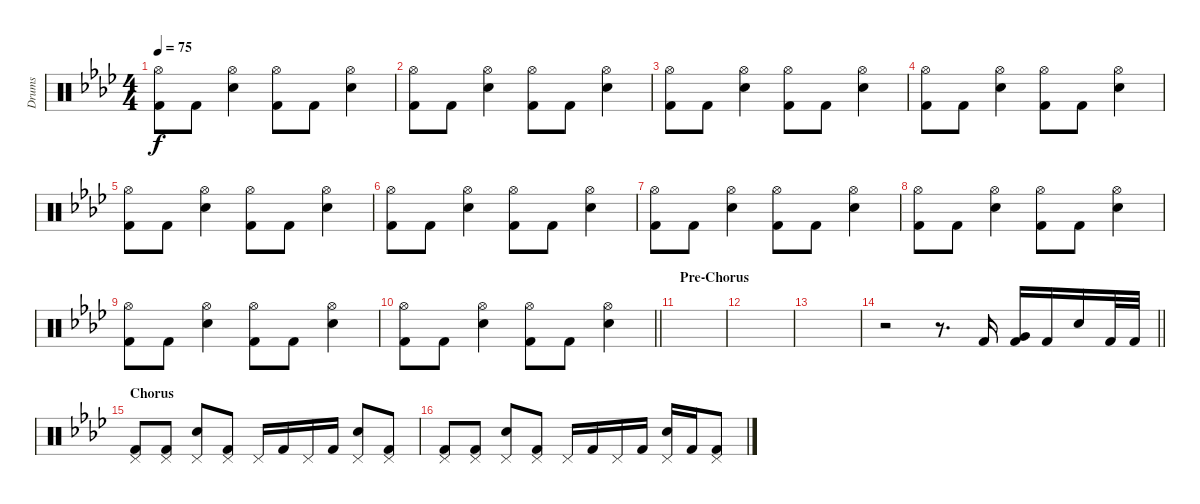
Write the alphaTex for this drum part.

\track ("Drums" "Drums") {instrument percussion}
\staff {score}
\articulation defaults
\ts (4 4)
\tempo 75
\clef neutral
\ks ab
("Hi-Hat (open)" "Kick (hit) 2").8{dy f} "Kick (hit) 2".8 ("Hi-Hat (open)" "Snare (hit) 2").4 ("Hi-Hat (open)" "Kick (hit) 2").8 "Kick (hit) 2".8 ("Hi-Hat (open)" "Snare (hit) 2").4 |
("Hi-Hat (open)" "Kick (hit) 2").8 "Kick (hit) 2".8 ("Hi-Hat (open)" "Snare (hit) 2").4 ("Hi-Hat (open)" "Kick (hit) 2").8 "Kick (hit) 2".8 ("Hi-Hat (open)" "Snare (hit) 2").4 |
("Hi-Hat (open)" "Kick (hit) 2").8 "Kick (hit) 2".8 ("Hi-Hat (open)" "Snare (hit) 2").4 ("Hi-Hat (open)" "Kick (hit) 2").8 "Kick (hit) 2".8 ("Hi-Hat (open)" "Snare (hit) 2").4 |
("Hi-Hat (open)" "Kick (hit) 2").8 "Kick (hit) 2".8 ("Hi-Hat (open)" "Snare (hit) 2").4 ("Hi-Hat (open)" "Kick (hit) 2").8 "Kick (hit) 2".8 ("Hi-Hat (open)" "Snare (hit) 2").4 |
("Hi-Hat (open)" "Kick (hit) 2").8 "Kick (hit) 2".8 ("Hi-Hat (open)" "Snare (hit) 2").4 ("Hi-Hat (open)" "Kick (hit) 2").8 "Kick (hit) 2".8 ("Hi-Hat (open)" "Snare (hit) 2").4 |
("Hi-Hat (open)" "Kick (hit) 2").8 "Kick (hit) 2".8 ("Hi-Hat (open)" "Snare (hit) 2").4 ("Hi-Hat (open)" "Kick (hit) 2").8 "Kick (hit) 2".8 ("Hi-Hat (open)" "Snare (hit) 2").4 |
("Hi-Hat (open)" "Kick (hit) 2").8 "Kick (hit) 2".8 ("Hi-Hat (open)" "Snare (hit) 2").4 ("Hi-Hat (open)" "Kick (hit) 2").8 "Kick (hit) 2".8 ("Hi-Hat (open)" "Snare (hit) 2").4 |
("Hi-Hat (open)" "Kick (hit) 2").8 "Kick (hit) 2".8 ("Hi-Hat (open)" "Snare (hit) 2").4 ("Hi-Hat (open)" "Kick (hit) 2").8 "Kick (hit) 2".8 ("Hi-Hat (open)" "Snare (hit) 2").4 |
("Hi-Hat (open)" "Kick (hit) 2").8 "Kick (hit) 2".8 ("Hi-Hat (open)" "Snare (hit) 2").4 ("Hi-Hat (open)" "Kick (hit) 2").8 "Kick (hit) 2".8 ("Hi-Hat (open)" "Snare (hit) 2").4 |
\barLineRight lightlight
("Hi-Hat (open)" "Kick (hit) 2").8 "Kick (hit) 2".8 ("Hi-Hat (open)" "Snare (hit) 2").4 ("Hi-Hat (open)" "Kick (hit) 2").8 "Kick (hit) 2".8 ("Hi-Hat (open)" "Snare (hit) 2").4 |
\section ("" "Pre-Chorus")
|
|
|
\barLineRight lightlight
r.2 r.8{d} "Kick (hit) 2".16 ("Kick (hit) 2" "Very Low Tom (hit)").16 "Kick (hit) 2".16 "Snare (hit) 2".16 "Kick (hit) 2".32 "Kick (hit) 2".32 |
\section ("" "Chorus")
("Pedal Hi-Hat (hit)" "Kick (hit) 2").8 ("Pedal Hi-Hat (hit)" "Kick (hit) 2").8 ("Pedal Hi-Hat (hit)" "Snare (hit) 2").8 ("Pedal Hi-Hat (hit)" "Kick (hit) 2").8 "Pedal Hi-Hat (hit)".16 "Kick (hit) 2".16 "Pedal Hi-Hat (hit)".16 "Kick (hit) 2".16 ("Pedal Hi-Hat (hit)" "Snare (hit) 2").8 ("Pedal Hi-Hat (hit)" "Kick (hit) 2").8 |
("Pedal Hi-Hat (hit)" "Kick (hit) 2").8 ("Pedal Hi-Hat (hit)" "Kick (hit) 2").8 ("Pedal Hi-Hat (hit)" "Snare (hit) 2").8 ("Pedal Hi-Hat (hit)" "Kick (hit) 2").8 "Pedal Hi-Hat (hit)".16 "Kick (hit) 2".16 "Pedal Hi-Hat (hit)".16 "Kick (hit) 2".16 ("Pedal Hi-Hat (hit)" "Snare (hit) 2").16 "Kick (hit) 2".16 ("Pedal Hi-Hat (hit)" "Kick (hit) 2").8
